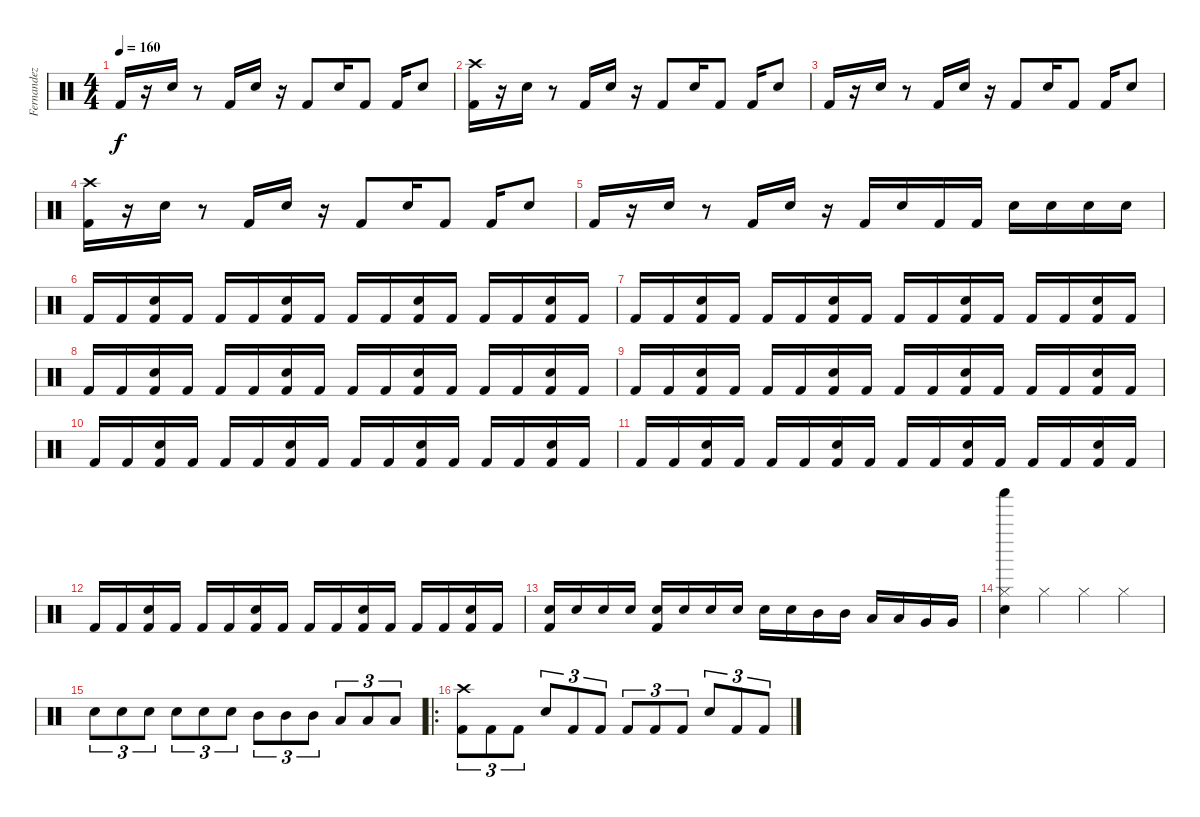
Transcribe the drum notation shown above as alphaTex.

\track ("Fernandez" "Fernandez") {instrument percussion}
\staff {score}
\articulation defaults
\ts (4 4)
\tempo 160
\clef neutral
\ks c "Kick (hit) 2".16{dy f}
r.16 "Snare (hit) 2".16 r.8 "Kick (hit) 2".16 "Snare (hit) 2".16 r.16 "Kick (hit) 2".8 "Snare (hit) 2".16 "Kick (hit) 2".8 "Kick (hit) 2".16 "Snare (hit) 2".8 |
("Kick (hit) 2" "Crash high (hit)").16 r.16 "Snare (hit) 2".16 r.8 "Kick (hit) 2".16 "Snare (hit) 2".16 r.16 "Kick (hit) 2".8 "Snare (hit) 2".16 "Kick (hit) 2".8 "Kick (hit) 2".16 "Snare (hit) 2".8 |
"Kick (hit) 2".16 r.16 "Snare (hit) 2".16 r.8 "Kick (hit) 2".16 "Snare (hit) 2".16 r.16 "Kick (hit) 2".8 "Snare (hit) 2".16 "Kick (hit) 2".8 "Kick (hit) 2".16 "Snare (hit) 2".8 |
("Kick (hit) 2" "Crash high (hit)").16 r.16 "Snare (hit) 2".16 r.8 "Kick (hit) 2".16 "Snare (hit) 2".16 r.16 "Kick (hit) 2".8 "Snare (hit) 2".16 "Kick (hit) 2".8 "Kick (hit) 2".16 "Snare (hit) 2".8 |
"Kick (hit) 2".16 r.16 "Snare (hit) 2".16 r.8 "Kick (hit) 2".16 "Snare (hit) 2".16 r.16 "Kick (hit) 2".16 "Snare (hit) 2".16 "Kick (hit) 2".16 "Kick (hit) 2".16 "Snare (hit) 2".16 "Snare (hit) 2".16 "Snare (hit) 2".16 "Snare (hit) 2".16 |
"Kick (hit) 2".16 "Kick (hit) 2".16 ("Snare (hit) 2" "Kick (hit) 2").16 "Kick (hit) 2".16 "Kick (hit) 2".16 "Kick (hit) 2".16 ("Snare (hit) 2" "Kick (hit) 2").16 "Kick (hit) 2".16 "Kick (hit) 2".16 "Kick (hit) 2".16 ("Snare (hit) 2" "Kick (hit) 2").16 "Kick (hit) 2".16 "Kick (hit) 2".16 "Kick (hit) 2".16 ("Snare (hit) 2" "Kick (hit) 2").16 "Kick (hit) 2".16 |
"Kick (hit) 2".16 "Kick (hit) 2".16 ("Snare (hit) 2" "Kick (hit) 2").16 "Kick (hit) 2".16 "Kick (hit) 2".16 "Kick (hit) 2".16 ("Snare (hit) 2" "Kick (hit) 2").16 "Kick (hit) 2".16 "Kick (hit) 2".16 "Kick (hit) 2".16 ("Snare (hit) 2" "Kick (hit) 2").16 "Kick (hit) 2".16 "Kick (hit) 2".16 "Kick (hit) 2".16 ("Snare (hit) 2" "Kick (hit) 2").16 "Kick (hit) 2".16 |
"Kick (hit) 2".16 "Kick (hit) 2".16 ("Snare (hit) 2" "Kick (hit) 2").16 "Kick (hit) 2".16 "Kick (hit) 2".16 "Kick (hit) 2".16 ("Snare (hit) 2" "Kick (hit) 2").16 "Kick (hit) 2".16 "Kick (hit) 2".16 "Kick (hit) 2".16 ("Snare (hit) 2" "Kick (hit) 2").16 "Kick (hit) 2".16 "Kick (hit) 2".16 "Kick (hit) 2".16 ("Snare (hit) 2" "Kick (hit) 2").16 "Kick (hit) 2".16 |
"Kick (hit) 2".16 "Kick (hit) 2".16 ("Snare (hit) 2" "Kick (hit) 2").16 "Kick (hit) 2".16 "Kick (hit) 2".16 "Kick (hit) 2".16 ("Snare (hit) 2" "Kick (hit) 2").16 "Kick (hit) 2".16 "Kick (hit) 2".16 "Kick (hit) 2".16 ("Snare (hit) 2" "Kick (hit) 2").16 "Kick (hit) 2".16 "Kick (hit) 2".16 "Kick (hit) 2".16 ("Snare (hit) 2" "Kick (hit) 2").16 "Kick (hit) 2".16 |
"Kick (hit) 2".16 "Kick (hit) 2".16 ("Snare (hit) 2" "Kick (hit) 2").16 "Kick (hit) 2".16 "Kick (hit) 2".16 "Kick (hit) 2".16 ("Snare (hit) 2" "Kick (hit) 2").16 "Kick (hit) 2".16 "Kick (hit) 2".16 "Kick (hit) 2".16 ("Snare (hit) 2" "Kick (hit) 2").16 "Kick (hit) 2".16 "Kick (hit) 2".16 "Kick (hit) 2".16 ("Snare (hit) 2" "Kick (hit) 2").16 "Kick (hit) 2".16 |
"Kick (hit) 2".16 "Kick (hit) 2".16 ("Snare (hit) 2" "Kick (hit) 2").16 "Kick (hit) 2".16 "Kick (hit) 2".16 "Kick (hit) 2".16 ("Snare (hit) 2" "Kick (hit) 2").16 "Kick (hit) 2".16 "Kick (hit) 2".16 "Kick (hit) 2".16 ("Snare (hit) 2" "Kick (hit) 2").16 "Kick (hit) 2".16 "Kick (hit) 2".16 "Kick (hit) 2".16 ("Snare (hit) 2" "Kick (hit) 2").16 "Kick (hit) 2".16 |
"Kick (hit) 2".16 "Kick (hit) 2".16 ("Snare (hit) 2" "Kick (hit) 2").16 "Kick (hit) 2".16 "Kick (hit) 2".16 "Kick (hit) 2".16 ("Snare (hit) 2" "Kick (hit) 2").16 "Kick (hit) 2".16 "Kick (hit) 2".16 "Kick (hit) 2".16 ("Snare (hit) 2" "Kick (hit) 2").16 "Kick (hit) 2".16 "Kick (hit) 2".16 "Kick (hit) 2".16 ("Snare (hit) 2" "Kick (hit) 2").16 "Kick (hit) 2".16 |
("Kick (hit) 2" "Snare (hit) 2").16 "Snare (hit) 2".16 "Snare (hit) 2".16 "Snare (hit) 2".16 ("Kick (hit) 2" "Snare (hit) 2").16 "Snare (hit) 2".16 "Snare (hit) 2".16 "Snare (hit) 2".16 "Snare (hit) 2".16 "Snare (hit) 2".16 "Mid Tom (hit)".16 "Mid Tom (hit)".16 "Low Tom (hit)".16 "Low Tom (hit)".16 "Very Low Tom (hit)".16 "Very Low Tom (hit)".16 |
("Hi-Hat (closed)" "Shaker (hit)" "Snare (hit) 2").4 "Hi-Hat (closed)".4 "Hi-Hat (closed)".4 "Hi-Hat (closed)".4 |
"Snare (hit) 2".8{tu (3 2)} "Snare (hit) 2".8{tu (3 2)} "Snare (hit) 2".8{tu (3 2)} "Snare (hit) 2".8{tu (3 2)} "Snare (hit) 2".8{tu (3 2)} "Snare (hit) 2".8{tu (3 2)} "Mid Tom (hit)".8{tu (3 2)} "Mid Tom (hit)".8{tu (3 2)} "Mid Tom (hit)".8{tu (3 2)} "Low Tom (hit)".8{tu (3 2)} "Low Tom (hit)".8{tu (3 2)} "Low Tom (hit)".8{tu (3 2)} |
\ro
("Crash high (hit)" "Kick (hit) 2").8{tu (3 2)} "Kick (hit) 2".8{tu (3 2)} "Kick (hit) 2".8{tu (3 2)} "Snare (hit) 2".8{tu (3 2)} "Kick (hit) 2".8{tu (3 2)} "Kick (hit) 2".8{tu (3 2)} "Kick (hit) 2".8{tu (3 2)} "Kick (hit) 2".8{tu (3 2)} "Kick (hit) 2".8{tu (3 2)} "Snare (hit) 2".8{tu (3 2)} "Kick (hit) 2".8{tu (3 2)} "Kick (hit) 2".8{tu (3 2)}
